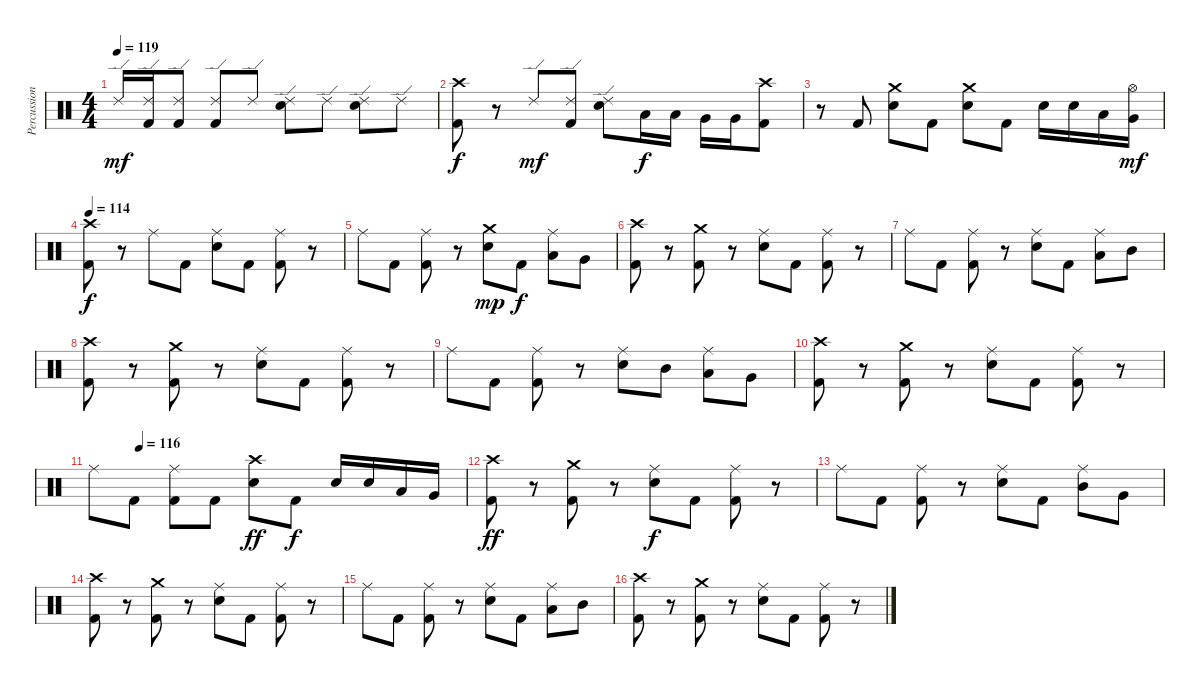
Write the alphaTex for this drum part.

\track ("Percussion" "Percussion") {instrument percussion}
\staff {score}
\articulation defaults
\ts (4 4)
\tempo 119
\clef neutral
\ks c "Ride (edge) 2".16{dy mf}
("Ride (edge) 2" "Kick (hit) 2").16 ("Ride (edge) 2" "Kick (hit) 2").8 ("Ride (edge) 2" "Kick (hit) 2").8 "Ride (edge) 2".8 ("Ride (edge) 2" "Snare (hit) 2").8 "Ride (edge) 2".8 ("Ride (edge) 2" "Snare (hit) 2").8 "Ride (edge) 2".8 |
("Crash high (hit)" "Kick (hit) 2").8{dy f} r.8 "Ride (edge) 2".8{dy mf} ("Ride (edge) 2" "Kick (hit) 2").8 ("Ride (edge) 2" "Snare (hit) 2").8 "Low Tom (hit)".16{dy f} "Low Tom (hit)".16 "Very Low Tom (hit)".16 "Very Low Tom (hit)".16 ("Crash high (hit)" "Kick (hit) 2").8 |
r.8 "Kick (hit) 2".8 ("Crash medium (hit)" "Snare (hit) 2").8 "Kick (hit) 2".8 ("Crash medium (hit)" "Snare (hit) 2").8 "Kick (hit) 2".8 "Snare (hit) 2".16 "Snare (hit) 2".16 "Low Tom (hit)".16 ("Hi-Hat (open)" "Very Low Tom (hit)").16{dy mf} |
\tempo 114
("Crash high (hit)" "Kick (hit) 2").8{dy f} r.8 "Ride (middle)".8 "Kick (hit) 2".8 ("Ride (middle)" "Snare (hit) 2").8 "Kick (hit) 2".8 ("Ride (middle)" "Kick (hit) 2").8 r.8 |
"Ride (middle)".8 "Kick (hit) 2".8 ("Ride (middle)" "Kick (hit) 2").8 r.8 ("Crash medium (hit)" "Snare (hit) 2").8{dy mp} "Kick (hit) 2".8{dy f} ("Ride (middle)" "Low Tom (hit)").8 "Very Low Tom (hit)".8 |
("Crash high (hit)" "Kick (hit) 2").8 r.8 ("Crash medium (hit)" "Kick (hit) 2").8 r.8 ("Ride (middle)" "Snare (hit) 2").8 "Kick (hit) 2".8 ("Ride (middle)" "Kick (hit) 2").8 r.8 |
"Ride (middle)".8 "Kick (hit) 2".8 ("Ride (middle)" "Kick (hit) 2").8 r.8 ("Ride (middle)" "Snare (hit) 2").8 "Kick (hit) 2".8 ("Ride (middle)" "Low Tom (hit)").8 "Mid Tom (hit)".8 |
("Crash high (hit)" "Kick (hit) 2").8 r.8 ("Crash medium (hit)" "Kick (hit) 2").8 r.8 ("Ride (middle)" "Snare (hit) 2").8 "Kick (hit) 2".8 ("Ride (middle)" "Kick (hit) 2").8 r.8 |
"Ride (middle)".8 "Kick (hit) 2".8 ("Ride (middle)" "Kick (hit) 2").8 r.8 ("Ride (middle)" "Snare (hit) 2").8 "Mid Tom (hit)".8 ("Ride (middle)" "Low Tom (hit)").8 "Very Low Tom (hit)".8 |
("Crash high (hit)" "Kick (hit) 2").8 r.8 ("Crash medium (hit)" "Kick (hit) 2").8 r.8 ("Ride (middle)" "Snare (hit) 2").8 "Kick (hit) 2".8 ("Ride (middle)" "Kick (hit) 2").8 r.8 |
\tempo (116 0.125)
"Ride (middle)".8 "Kick (hit) 2".8 ("Ride (middle)" "Kick (hit) 2").8 "Kick (hit) 2".8 ("Crash high (hit)" "Snare (hit) 2").8{dy ff} "Kick (hit) 2".8{dy f} "Snare (hit) 2".16 "Snare (hit) 2".16 "Low Tom (hit)".16 "Very Low Tom (hit)".16 |
("Crash high (hit)" "Kick (hit) 2").8{dy ff} r.8 ("Crash medium (hit)" "Kick (hit) 2").8 r.8 ("Ride (middle)" "Snare (hit) 2").8{dy f} "Kick (hit) 2".8 ("Ride (middle)" "Kick (hit) 2").8 r.8 |
"Ride (middle)".8 "Kick (hit) 2".8 ("Ride (middle)" "Kick (hit) 2").8 r.8 ("Ride (middle)" "Snare (hit) 2").8 "Kick (hit) 2".8 ("Ride (middle)" "Mid Tom (hit)").8 "Very Low Tom (hit)".8 |
("Crash high (hit)" "Kick (hit) 2").8 r.8 ("Crash medium (hit)" "Kick (hit) 2").8 r.8 ("Ride (middle)" "Snare (hit) 2").8 "Kick (hit) 2".8 ("Ride (middle)" "Kick (hit) 2").8 r.8 |
"Ride (middle)".8 "Kick (hit) 2".8 ("Ride (middle)" "Kick (hit) 2").8 r.8 ("Ride (middle)" "Snare (hit) 2").8 "Kick (hit) 2".8 ("Ride (middle)" "Low Tom (hit)").8 "Mid Tom (hit)".8 |
("Crash high (hit)" "Kick (hit) 2").8 r.8 ("Crash medium (hit)" "Kick (hit) 2").8 r.8 ("Ride (middle)" "Snare (hit) 2").8 "Kick (hit) 2".8 ("Ride (middle)" "Kick (hit) 2").8 r.8
